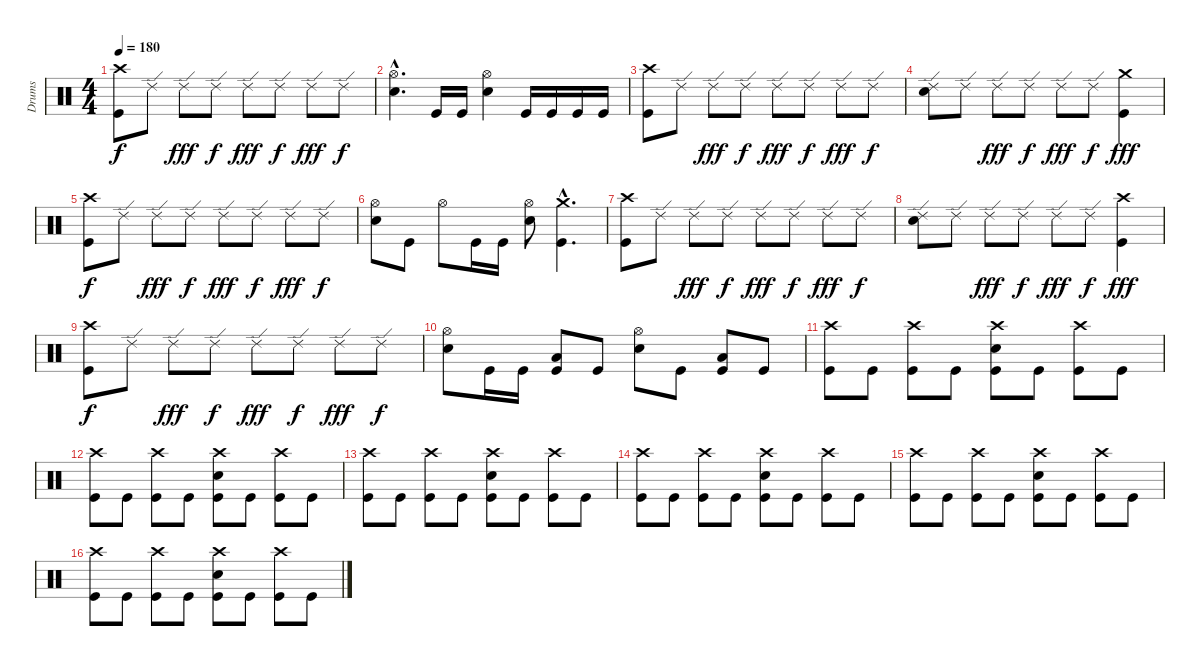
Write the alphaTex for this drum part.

\track ("Drums" "Drums") {instrument percussion}
\staff {score}
\articulation defaults
\ts (4 4)
\tempo 180
\clef neutral
\ks c
("Crash high (hit)" "Kick (hit)").8{dy f} "Ride (edge) 2".8 "Ride (edge) 2".8{dy fff} "Ride (edge) 2".8{dy f} "Ride (edge) 2".8{dy fff} "Ride (edge) 2".8{dy f} "Ride (edge) 2".8{dy fff} "Ride (edge) 2".8{dy f} |
("Hi-Hat (open)"{hac} "Electric Snare (hit)"{hac}).4{d} "Kick (hit)".16 "Kick (hit)".16 ("Hi-Hat (open)" "Electric Snare (hit)").4 "Kick (hit)".16 "Kick (hit)".16 "Kick (hit)".16 "Kick (hit)".16 |
("Crash high (hit)" "Kick (hit)").8 "Ride (edge) 2".8 "Ride (edge) 2".8{dy fff} "Ride (edge) 2".8{dy f} "Ride (edge) 2".8{dy fff} "Ride (edge) 2".8{dy f} "Ride (edge) 2".8{dy fff} "Ride (edge) 2".8{dy f} |
("Ride (edge) 2" "Electric Snare (hit)").8 "Ride (edge) 2".8 "Ride (edge) 2".8{dy fff} "Ride (edge) 2".8{dy f} "Ride (edge) 2".8{dy fff} "Ride (edge) 2".8{dy f} ("Crash medium (hit)" "Kick (hit)").4{dy fff} |
("Crash high (hit)" "Kick (hit)").8{dy f} "Ride (edge) 2".8 "Ride (edge) 2".8{dy fff} "Ride (edge) 2".8{dy f} "Ride (edge) 2".8{dy fff} "Ride (edge) 2".8{dy f} "Ride (edge) 2".8{dy fff} "Ride (edge) 2".8{dy f} |
("Hi-Hat (open)" "Electric Snare (hit)").8 "Kick (hit)".8 "Hi-Hat (open)".8 "Kick (hit)".16 "Kick (hit)".16 ("Hi-Hat (open)" "Electric Snare (hit)").8 ("Crash medium (hit)"{hac} "Kick (hit)"{hac}).4{d} |
("Crash high (hit)" "Kick (hit)").8 "Ride (edge) 2".8 "Ride (edge) 2".8{dy fff} "Ride (edge) 2".8{dy f} "Ride (edge) 2".8{dy fff} "Ride (edge) 2".8{dy f} "Ride (edge) 2".8{dy fff} "Ride (edge) 2".8{dy f} |
("Ride (edge) 2" "Electric Snare (hit)").8 "Ride (edge) 2".8 "Ride (edge) 2".8{dy fff} "Ride (edge) 2".8{dy f} "Ride (edge) 2".8{dy fff} "Ride (edge) 2".8{dy f} ("Crash high (hit)" "Kick (hit)").4{dy fff} |
("Crash high (hit)" "Kick (hit)").8{dy f} "Ride (edge) 2".8 "Ride (edge) 2".8{dy fff} "Ride (edge) 2".8{dy f} "Ride (edge) 2".8{dy fff} "Ride (edge) 2".8{dy f} "Ride (edge) 2".8{dy fff} "Ride (edge) 2".8{dy f} |
("Hi-Hat (open)" "Electric Snare (hit)").8 "Kick (hit)".16 "Kick (hit)".16 ("Low Tom (hit)" "Kick (hit)").8 "Kick (hit)".8 ("Hi-Hat (open)" "Electric Snare (hit)").8 "Kick (hit)".8 ("Low Tom (hit)" "Kick (hit)").8 "Kick (hit)".8 |
("Crash high (hit)" "Kick (hit)").8 "Kick (hit)".8 ("Crash high (hit)" "Kick (hit)").8 "Kick (hit)".8 ("Crash high (hit)" "Electric Snare (hit)" "Kick (hit)").8 "Kick (hit)".8 ("Crash high (hit)" "Kick (hit)").8 "Kick (hit)".8 |
("Crash high (hit)" "Kick (hit)").8 "Kick (hit)".8 ("Crash high (hit)" "Kick (hit)").8 "Kick (hit)".8 ("Crash high (hit)" "Electric Snare (hit)" "Kick (hit)").8 "Kick (hit)".8 ("Crash high (hit)" "Kick (hit)").8 "Kick (hit)".8 |
("Crash high (hit)" "Kick (hit)").8 "Kick (hit)".8 ("Crash high (hit)" "Kick (hit)").8 "Kick (hit)".8 ("Crash high (hit)" "Electric Snare (hit)" "Kick (hit)").8 "Kick (hit)".8 ("Crash high (hit)" "Kick (hit)").8 "Kick (hit)".8 |
("Crash high (hit)" "Kick (hit)").8 "Kick (hit)".8 ("Crash high (hit)" "Kick (hit)").8 "Kick (hit)".8 ("Crash high (hit)" "Electric Snare (hit)" "Kick (hit)").8 "Kick (hit)".8 ("Crash high (hit)" "Kick (hit)").8 "Kick (hit)".8 |
("Crash high (hit)" "Kick (hit)").8 "Kick (hit)".8 ("Crash high (hit)" "Kick (hit)").8 "Kick (hit)".8 ("Crash high (hit)" "Electric Snare (hit)" "Kick (hit)").8 "Kick (hit)".8 ("Crash high (hit)" "Kick (hit)").8 "Kick (hit)".8 |
("Crash high (hit)" "Kick (hit)").8 "Kick (hit)".8 ("Crash high (hit)" "Kick (hit)").8 "Kick (hit)".8 ("Crash high (hit)" "Electric Snare (hit)" "Kick (hit)").8 "Kick (hit)".8 ("Crash high (hit)" "Kick (hit)").8 "Kick (hit)".8
